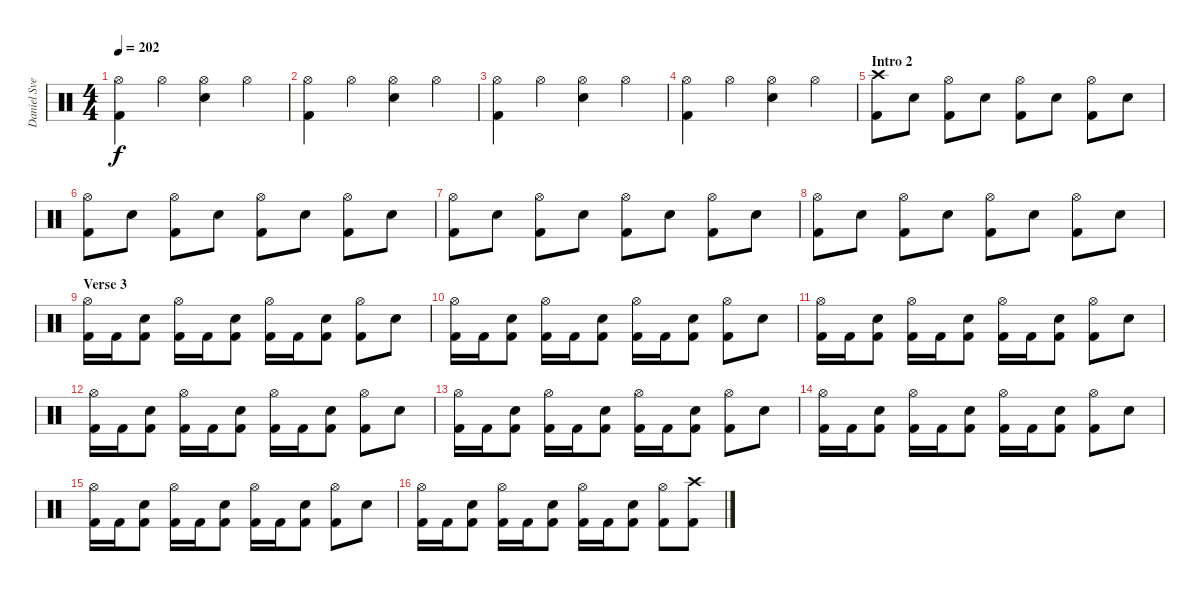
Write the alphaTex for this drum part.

\track ("Daniel Svensson" "Daniel Sve") {instrument percussion}
\staff {score}
\articulation defaults
\ts (4 4)
\tempo 202
\clef neutral
\ks c
("Hi-Hat (open)" "Kick (hit) 2").4{dy f} "Hi-Hat (open)".4 ("Hi-Hat (open)" "Electric Snare (hit)").4 "Hi-Hat (open)".4 |
("Hi-Hat (open)" "Kick (hit) 2").4 "Hi-Hat (open)".4 ("Hi-Hat (open)" "Electric Snare (hit)").4 "Hi-Hat (open)".4 |
("Hi-Hat (open)" "Kick (hit) 2").4 "Hi-Hat (open)".4 ("Hi-Hat (open)" "Electric Snare (hit)").4 "Hi-Hat (open)".4 |
("Hi-Hat (open)" "Kick (hit) 2").4 "Hi-Hat (open)".4 ("Hi-Hat (open)" "Electric Snare (hit)").4 "Hi-Hat (open)".4 |
\section ("" "Intro 2")
("Crash high (hit)" "Kick (hit) 2").8 "Electric Snare (hit)".8 ("Hi-Hat (open)" "Kick (hit) 2").8 "Electric Snare (hit)".8 ("Hi-Hat (open)" "Kick (hit) 2").8 "Electric Snare (hit)".8 ("Hi-Hat (open)" "Kick (hit) 2").8 "Electric Snare (hit)".8 |
("Hi-Hat (open)" "Kick (hit) 2").8 "Electric Snare (hit)".8 ("Hi-Hat (open)" "Kick (hit) 2").8 "Electric Snare (hit)".8 ("Hi-Hat (open)" "Kick (hit) 2").8 "Electric Snare (hit)".8 ("Hi-Hat (open)" "Kick (hit) 2").8 "Electric Snare (hit)".8 |
("Hi-Hat (open)" "Kick (hit) 2").8 "Electric Snare (hit)".8 ("Hi-Hat (open)" "Kick (hit) 2").8 "Electric Snare (hit)".8 ("Hi-Hat (open)" "Kick (hit) 2").8 "Electric Snare (hit)".8 ("Hi-Hat (open)" "Kick (hit) 2").8 "Electric Snare (hit)".8 |
("Hi-Hat (open)" "Kick (hit) 2").8 "Electric Snare (hit)".8 ("Hi-Hat (open)" "Kick (hit) 2").8 "Electric Snare (hit)".8 ("Hi-Hat (open)" "Kick (hit) 2").8 "Electric Snare (hit)".8 ("Hi-Hat (open)" "Kick (hit) 2").8 "Electric Snare (hit)".8 |
\section ("" "Verse 3")
("Hi-Hat (open)" "Kick (hit) 2").16 "Kick (hit) 2".16 ("Electric Snare (hit)" "Kick (hit) 2").8 ("Hi-Hat (open)" "Kick (hit) 2").16 "Kick (hit) 2".16 ("Electric Snare (hit)" "Kick (hit) 2").8 ("Hi-Hat (open)" "Kick (hit) 2").16 "Kick (hit) 2".16 ("Electric Snare (hit)" "Kick (hit) 2").8 ("Hi-Hat (open)" "Kick (hit) 2").8 "Electric Snare (hit)".8 |
("Hi-Hat (open)" "Kick (hit) 2").16 "Kick (hit) 2".16 ("Electric Snare (hit)" "Kick (hit) 2").8 ("Hi-Hat (open)" "Kick (hit) 2").16 "Kick (hit) 2".16 ("Electric Snare (hit)" "Kick (hit) 2").8 ("Hi-Hat (open)" "Kick (hit) 2").16 "Kick (hit) 2".16 ("Electric Snare (hit)" "Kick (hit) 2").8 ("Hi-Hat (open)" "Kick (hit) 2").8 "Electric Snare (hit)".8 |
("Hi-Hat (open)" "Kick (hit) 2").16 "Kick (hit) 2".16 ("Electric Snare (hit)" "Kick (hit) 2").8 ("Hi-Hat (open)" "Kick (hit) 2").16 "Kick (hit) 2".16 ("Electric Snare (hit)" "Kick (hit) 2").8 ("Hi-Hat (open)" "Kick (hit) 2").16 "Kick (hit) 2".16 ("Electric Snare (hit)" "Kick (hit) 2").8 ("Hi-Hat (open)" "Kick (hit) 2").8 "Electric Snare (hit)".8 |
("Hi-Hat (open)" "Kick (hit) 2").16 "Kick (hit) 2".16 ("Electric Snare (hit)" "Kick (hit) 2").8 ("Hi-Hat (open)" "Kick (hit) 2").16 "Kick (hit) 2".16 ("Electric Snare (hit)" "Kick (hit) 2").8 ("Hi-Hat (open)" "Kick (hit) 2").16 "Kick (hit) 2".16 ("Electric Snare (hit)" "Kick (hit) 2").8 ("Hi-Hat (open)" "Kick (hit) 2").8 "Electric Snare (hit)".8 |
("Hi-Hat (open)" "Kick (hit) 2").16 "Kick (hit) 2".16 ("Electric Snare (hit)" "Kick (hit) 2").8 ("Hi-Hat (open)" "Kick (hit) 2").16 "Kick (hit) 2".16 ("Electric Snare (hit)" "Kick (hit) 2").8 ("Hi-Hat (open)" "Kick (hit) 2").16 "Kick (hit) 2".16 ("Electric Snare (hit)" "Kick (hit) 2").8 ("Hi-Hat (open)" "Kick (hit) 2").8 "Electric Snare (hit)".8 |
("Hi-Hat (open)" "Kick (hit) 2").16 "Kick (hit) 2".16 ("Electric Snare (hit)" "Kick (hit) 2").8 ("Hi-Hat (open)" "Kick (hit) 2").16 "Kick (hit) 2".16 ("Electric Snare (hit)" "Kick (hit) 2").8 ("Hi-Hat (open)" "Kick (hit) 2").16 "Kick (hit) 2".16 ("Electric Snare (hit)" "Kick (hit) 2").8 ("Hi-Hat (open)" "Kick (hit) 2").8 "Electric Snare (hit)".8 |
("Hi-Hat (open)" "Kick (hit) 2").16 "Kick (hit) 2".16 ("Electric Snare (hit)" "Kick (hit) 2").8 ("Hi-Hat (open)" "Kick (hit) 2").16 "Kick (hit) 2".16 ("Electric Snare (hit)" "Kick (hit) 2").8 ("Hi-Hat (open)" "Kick (hit) 2").16 "Kick (hit) 2".16 ("Electric Snare (hit)" "Kick (hit) 2").8 ("Hi-Hat (open)" "Kick (hit) 2").8 "Electric Snare (hit)".8 |
("Hi-Hat (open)" "Kick (hit) 2").16 "Kick (hit) 2".16 ("Electric Snare (hit)" "Kick (hit) 2").8 ("Hi-Hat (open)" "Kick (hit) 2").16 "Kick (hit) 2".16 ("Electric Snare (hit)" "Kick (hit) 2").8 ("Hi-Hat (open)" "Kick (hit) 2").16 "Kick (hit) 2".16 ("Electric Snare (hit)" "Kick (hit) 2").8 ("Hi-Hat (open)" "Kick (hit) 2").8 ("Crash high (hit)" "Kick (hit) 2").8
